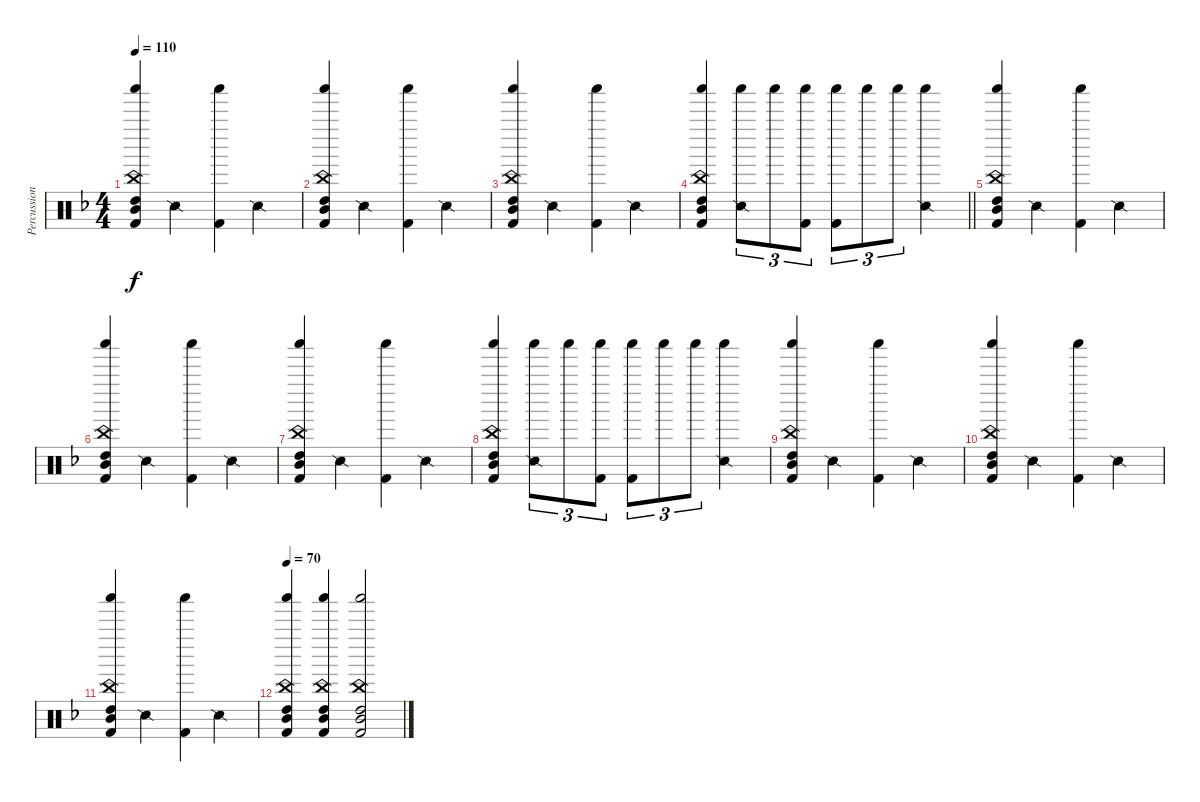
\track ("Percussion" "Percussion") {instrument percussion}
\staff {score}
\articulation defaults
\ts (4 4)
\tempo 110
\clef neutral
\ks f
("Mid Tom (hit)" "China (hit)" "Shaker (hit)" "High Tom (hit)" "Kick (hit) 2").4{dy f} "Snare (side stick) 2".4 ("Shaker (hit)" "Kick (hit) 2").4 "Snare (side stick) 2".4 |
("Mid Tom (hit)" "China (hit)" "Shaker (hit)" "High Tom (hit)" "Kick (hit) 2").4 "Snare (side stick) 2".4 ("Shaker (hit)" "Kick (hit) 2").4 "Snare (side stick) 2".4 |
("Mid Tom (hit)" "China (hit)" "Shaker (hit)" "High Tom (hit)" "Kick (hit) 2").4 "Snare (side stick) 2".4 ("Shaker (hit)" "Kick (hit) 2").4 "Snare (side stick) 2".4 |
\barLineRight lightlight
("Mid Tom (hit)" "China (hit)" "Shaker (hit)" "High Tom (hit)" "Kick (hit) 2").4 ("Snare (side stick) 2" "Shaker (hit)").8{tu (3 2)} "Shaker (hit)".8{tu (3 2)} ("Shaker (hit)" "Kick (hit) 2").8{tu (3 2)} ("Shaker (hit)" "Kick (hit) 2").8{tu (3 2)} "Shaker (hit)".8{tu (3 2)} "Shaker (hit)".8{tu (3 2)} ("Snare (side stick) 2" "Shaker (hit)").4 |
\section ("" "")
("Mid Tom (hit)" "China (hit)" "Shaker (hit)" "High Tom (hit)" "Kick (hit) 2").4 "Snare (side stick) 2".4 ("Shaker (hit)" "Kick (hit) 2").4 "Snare (side stick) 2".4 |
("Mid Tom (hit)" "China (hit)" "Shaker (hit)" "High Tom (hit)" "Kick (hit) 2").4 "Snare (side stick) 2".4 ("Shaker (hit)" "Kick (hit) 2").4 "Snare (side stick) 2".4 |
("Mid Tom (hit)" "China (hit)" "Shaker (hit)" "High Tom (hit)" "Kick (hit) 2").4 "Snare (side stick) 2".4 ("Shaker (hit)" "Kick (hit) 2").4 "Snare (side stick) 2".4 |
("Mid Tom (hit)" "China (hit)" "Shaker (hit)" "High Tom (hit)" "Kick (hit) 2").4 ("Snare (side stick) 2" "Shaker (hit)").8{tu (3 2)} "Shaker (hit)".8{tu (3 2)} ("Shaker (hit)" "Kick (hit) 2").8{tu (3 2)} ("Shaker (hit)" "Kick (hit) 2").8{tu (3 2)} "Shaker (hit)".8{tu (3 2)} "Shaker (hit)".8{tu (3 2)} ("Snare (side stick) 2" "Shaker (hit)").4 |
("Mid Tom (hit)" "China (hit)" "Shaker (hit)" "High Tom (hit)" "Kick (hit) 2").4 "Snare (side stick) 2".4 ("Shaker (hit)" "Kick (hit) 2").4 "Snare (side stick) 2".4 |
("Mid Tom (hit)" "China (hit)" "Shaker (hit)" "High Tom (hit)" "Kick (hit) 2").4 "Snare (side stick) 2".4 ("Shaker (hit)" "Kick (hit) 2").4 "Snare (side stick) 2".4 |
("Mid Tom (hit)" "China (hit)" "Shaker (hit)" "High Tom (hit)" "Kick (hit) 2").4 "Snare (side stick) 2".4 ("Shaker (hit)" "Kick (hit) 2").4 "Snare (side stick) 2".4 |
\tempo 70
("Mid Tom (hit)" "China (hit)" "Shaker (hit)" "High Tom (hit)" "Kick (hit) 2").4 ("Mid Tom (hit)" "China (hit)" "Shaker (hit)" "High Tom (hit)" "Kick (hit) 2").4 ("Mid Tom (hit)" "China (hit)" "Shaker (hit)" "High Tom (hit)" "Kick (hit) 2").2
